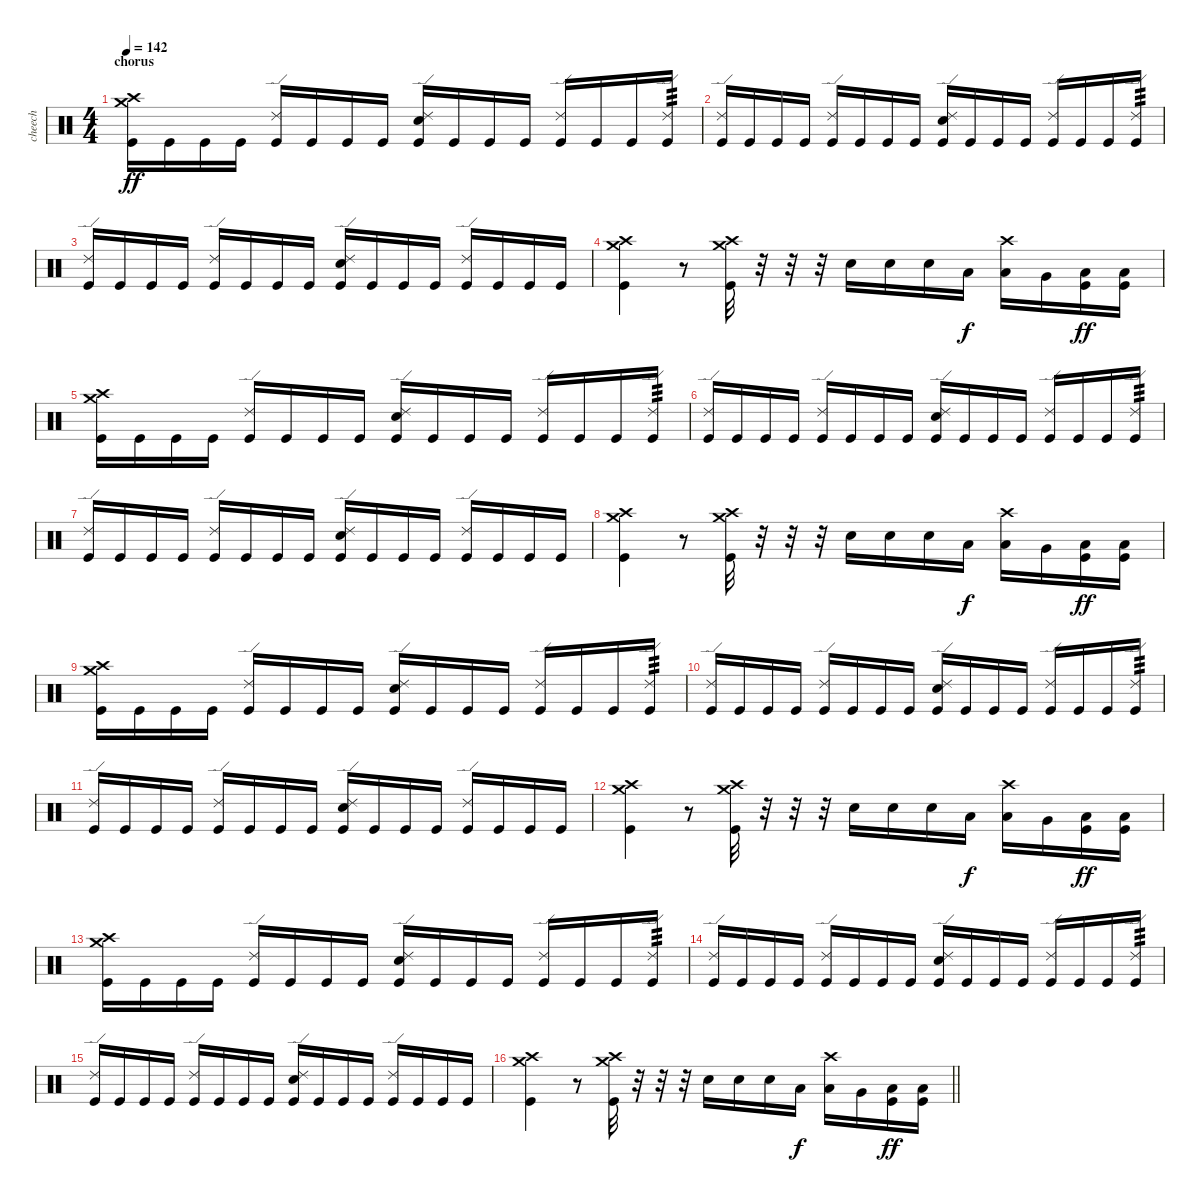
\track ("cheech" "cheech") {instrument percussion}
\staff {score}
\articulation defaults
\ts (4 4)
\section ("" "chorus")
\tempo 142
\clef neutral
\ks c
("Crash high (hit)" "Crash medium (hit)" "Kick (hit)").16{dy ff} "Kick (hit)".16 "Kick (hit)".16 "Kick (hit)".16 ("Ride (edge) 2" "Kick (hit)").16 "Kick (hit)".16 "Kick (hit)".16 "Kick (hit)".16 ("Ride (edge) 2" "Electric Snare (hit)" "Kick (hit)").16 "Kick (hit)".16 "Kick (hit)".16 "Kick (hit)".16 ("Ride (edge) 2" "Kick (hit)").16 "Kick (hit)".16 "Kick (hit)".16 ("Ride (edge) 2" "Kick (hit)").16{tp 3} |
("Ride (edge) 2" "Kick (hit)").16 "Kick (hit)".16 "Kick (hit)".16 "Kick (hit)".16 ("Ride (edge) 2" "Kick (hit)").16 "Kick (hit)".16 "Kick (hit)".16 "Kick (hit)".16 ("Ride (edge) 2" "Electric Snare (hit)" "Kick (hit)").16 "Kick (hit)".16 "Kick (hit)".16 "Kick (hit)".16 ("Ride (edge) 2" "Kick (hit)").16 "Kick (hit)".16 "Kick (hit)".16 ("Ride (edge) 2" "Kick (hit)").16{tp 3} |
("Ride (edge) 2" "Kick (hit)").16 "Kick (hit)".16 "Kick (hit)".16 "Kick (hit)".16 ("Ride (edge) 2" "Kick (hit)").16 "Kick (hit)".16 "Kick (hit)".16 "Kick (hit)".16 ("Ride (edge) 2" "Electric Snare (hit)" "Kick (hit)").16 "Kick (hit)".16 "Kick (hit)".16 "Kick (hit)".16 ("Ride (edge) 2" "Kick (hit)").16 "Kick (hit)".16 "Kick (hit)".16 "Kick (hit)".16 |
("Crash high (hit)" "Crash medium (hit)" "Kick (hit)").4 r.8 ("Crash medium (hit)" "Crash high (hit)" "Kick (hit)").32 r.32 r.32 r.32 "Electric Snare (hit)".16 "Electric Snare (hit)".16 "Electric Snare (hit)".16 "Low Tom (hit)".16{dy f} ("Crash high (hit)" "Low Tom (hit)").16 "Very Low Tom (hit)".16 ("Low Floor Tom (hit)" "Kick (hit)").16{dy ff} ("Low Floor Tom (hit)" "Kick (hit)").16 |
("Crash high (hit)" "Crash medium (hit)" "Kick (hit)").16 "Kick (hit)".16 "Kick (hit)".16 "Kick (hit)".16 ("Ride (edge) 2" "Kick (hit)").16 "Kick (hit)".16 "Kick (hit)".16 "Kick (hit)".16 ("Ride (edge) 2" "Electric Snare (hit)" "Kick (hit)").16 "Kick (hit)".16 "Kick (hit)".16 "Kick (hit)".16 ("Ride (edge) 2" "Kick (hit)").16 "Kick (hit)".16 "Kick (hit)".16 ("Ride (edge) 2" "Kick (hit)").16{tp 3} |
("Ride (edge) 2" "Kick (hit)").16 "Kick (hit)".16 "Kick (hit)".16 "Kick (hit)".16 ("Ride (edge) 2" "Kick (hit)").16 "Kick (hit)".16 "Kick (hit)".16 "Kick (hit)".16 ("Ride (edge) 2" "Electric Snare (hit)" "Kick (hit)").16 "Kick (hit)".16 "Kick (hit)".16 "Kick (hit)".16 ("Ride (edge) 2" "Kick (hit)").16 "Kick (hit)".16 "Kick (hit)".16 ("Ride (edge) 2" "Kick (hit)").16{tp 3} |
("Ride (edge) 2" "Kick (hit)").16 "Kick (hit)".16 "Kick (hit)".16 "Kick (hit)".16 ("Ride (edge) 2" "Kick (hit)").16 "Kick (hit)".16 "Kick (hit)".16 "Kick (hit)".16 ("Ride (edge) 2" "Electric Snare (hit)" "Kick (hit)").16 "Kick (hit)".16 "Kick (hit)".16 "Kick (hit)".16 ("Ride (edge) 2" "Kick (hit)").16 "Kick (hit)".16 "Kick (hit)".16 "Kick (hit)".16 |
("Crash high (hit)" "Crash medium (hit)" "Kick (hit)").4 r.8 ("Crash medium (hit)" "Crash high (hit)" "Kick (hit)").32 r.32 r.32 r.32 "Electric Snare (hit)".16 "Electric Snare (hit)".16 "Electric Snare (hit)".16 "Low Tom (hit)".16{dy f} ("Crash high (hit)" "Low Tom (hit)").16 "Very Low Tom (hit)".16 ("Low Floor Tom (hit)" "Kick (hit)").16{dy ff} ("Low Floor Tom (hit)" "Kick (hit)").16 |
("Crash high (hit)" "Crash medium (hit)" "Kick (hit)").16 "Kick (hit)".16 "Kick (hit)".16 "Kick (hit)".16 ("Ride (edge) 2" "Kick (hit)").16 "Kick (hit)".16 "Kick (hit)".16 "Kick (hit)".16 ("Ride (edge) 2" "Electric Snare (hit)" "Kick (hit)").16 "Kick (hit)".16 "Kick (hit)".16 "Kick (hit)".16 ("Ride (edge) 2" "Kick (hit)").16 "Kick (hit)".16 "Kick (hit)".16 ("Ride (edge) 2" "Kick (hit)").16{tp 3} |
("Ride (edge) 2" "Kick (hit)").16 "Kick (hit)".16 "Kick (hit)".16 "Kick (hit)".16 ("Ride (edge) 2" "Kick (hit)").16 "Kick (hit)".16 "Kick (hit)".16 "Kick (hit)".16 ("Ride (edge) 2" "Electric Snare (hit)" "Kick (hit)").16 "Kick (hit)".16 "Kick (hit)".16 "Kick (hit)".16 ("Ride (edge) 2" "Kick (hit)").16 "Kick (hit)".16 "Kick (hit)".16 ("Ride (edge) 2" "Kick (hit)").16{tp 3} |
("Ride (edge) 2" "Kick (hit)").16 "Kick (hit)".16 "Kick (hit)".16 "Kick (hit)".16 ("Ride (edge) 2" "Kick (hit)").16 "Kick (hit)".16 "Kick (hit)".16 "Kick (hit)".16 ("Ride (edge) 2" "Electric Snare (hit)" "Kick (hit)").16 "Kick (hit)".16 "Kick (hit)".16 "Kick (hit)".16 ("Ride (edge) 2" "Kick (hit)").16 "Kick (hit)".16 "Kick (hit)".16 "Kick (hit)".16 |
("Crash high (hit)" "Crash medium (hit)" "Kick (hit)").4 r.8 ("Crash medium (hit)" "Crash high (hit)" "Kick (hit)").32 r.32 r.32 r.32 "Electric Snare (hit)".16 "Electric Snare (hit)".16 "Electric Snare (hit)".16 "Low Tom (hit)".16{dy f} ("Crash high (hit)" "Low Tom (hit)").16 "Very Low Tom (hit)".16 ("Low Floor Tom (hit)" "Kick (hit)").16{dy ff} ("Low Floor Tom (hit)" "Kick (hit)").16 |
("Crash high (hit)" "Crash medium (hit)" "Kick (hit)").16 "Kick (hit)".16 "Kick (hit)".16 "Kick (hit)".16 ("Ride (edge) 2" "Kick (hit)").16 "Kick (hit)".16 "Kick (hit)".16 "Kick (hit)".16 ("Ride (edge) 2" "Electric Snare (hit)" "Kick (hit)").16 "Kick (hit)".16 "Kick (hit)".16 "Kick (hit)".16 ("Ride (edge) 2" "Kick (hit)").16 "Kick (hit)".16 "Kick (hit)".16 ("Ride (edge) 2" "Kick (hit)").16{tp 3} |
("Ride (edge) 2" "Kick (hit)").16 "Kick (hit)".16 "Kick (hit)".16 "Kick (hit)".16 ("Ride (edge) 2" "Kick (hit)").16 "Kick (hit)".16 "Kick (hit)".16 "Kick (hit)".16 ("Ride (edge) 2" "Electric Snare (hit)" "Kick (hit)").16 "Kick (hit)".16 "Kick (hit)".16 "Kick (hit)".16 ("Ride (edge) 2" "Kick (hit)").16 "Kick (hit)".16 "Kick (hit)".16 ("Ride (edge) 2" "Kick (hit)").16{tp 3} |
("Ride (edge) 2" "Kick (hit)").16 "Kick (hit)".16 "Kick (hit)".16 "Kick (hit)".16 ("Ride (edge) 2" "Kick (hit)").16 "Kick (hit)".16 "Kick (hit)".16 "Kick (hit)".16 ("Ride (edge) 2" "Electric Snare (hit)" "Kick (hit)").16 "Kick (hit)".16 "Kick (hit)".16 "Kick (hit)".16 ("Ride (edge) 2" "Kick (hit)").16 "Kick (hit)".16 "Kick (hit)".16 "Kick (hit)".16 |
\barLineRight lightlight
("Crash high (hit)" "Crash medium (hit)" "Kick (hit)").4 r.8 ("Crash medium (hit)" "Crash high (hit)" "Kick (hit)").32 r.32 r.32 r.32 "Electric Snare (hit)".16 "Electric Snare (hit)".16 "Electric Snare (hit)".16 "Low Tom (hit)".16{dy f} ("Crash high (hit)" "Low Tom (hit)").16 "Very Low Tom (hit)".16 ("Low Floor Tom (hit)" "Kick (hit)").16{dy ff} ("Low Floor Tom (hit)" "Kick (hit)").16
